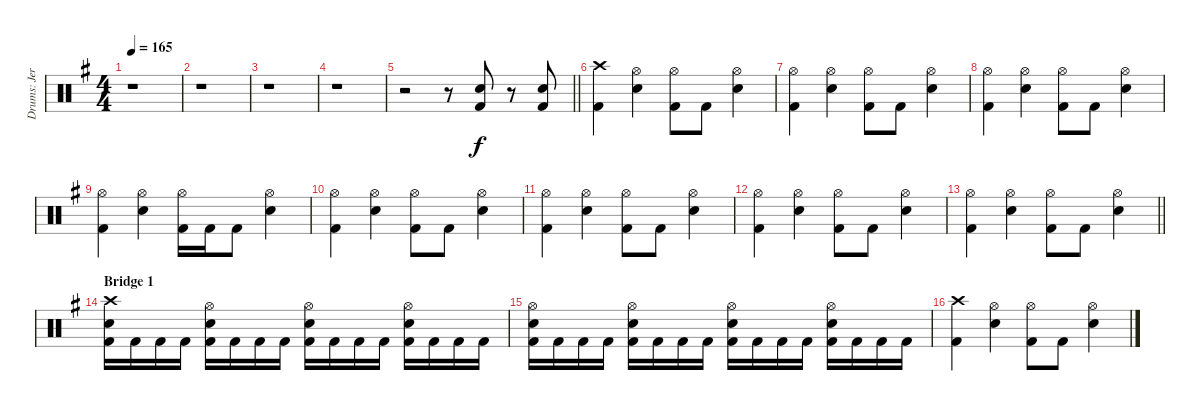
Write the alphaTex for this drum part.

\track ("Drums: Jere Luokkamäki" "Drums: Jer") {instrument percussion}
\staff {score}
\articulation defaults
\ts (4 4)
\tempo 165
\clef neutral
\ks eminor
r.1{dy f} |
r.1 |
r.1 |
r.1 |
\barLineRight lightlight
r.2 r.8 ("Electric Snare (hit)" "Kick (hit) 2").8 r.8 ("Electric Snare (hit)" "Kick (hit) 2").8 |
("Crash high (hit)" "Kick (hit) 2").4 ("Hi-Hat (open)" "Electric Snare (hit)").4 ("Hi-Hat (open)" "Kick (hit) 2").8 "Kick (hit) 2".8 ("Hi-Hat (open)" "Electric Snare (hit)").4 |
("Hi-Hat (open)" "Kick (hit) 2").4 ("Hi-Hat (open)" "Electric Snare (hit)").4 ("Hi-Hat (open)" "Kick (hit) 2").8 "Kick (hit) 2".8 ("Hi-Hat (open)" "Electric Snare (hit)").4 |
("Hi-Hat (open)" "Kick (hit) 2").4 ("Hi-Hat (open)" "Electric Snare (hit)").4 ("Hi-Hat (open)" "Kick (hit) 2").8 "Kick (hit) 2".8 ("Hi-Hat (open)" "Electric Snare (hit)").4 |
("Hi-Hat (open)" "Kick (hit) 2").4 ("Hi-Hat (open)" "Electric Snare (hit)").4 ("Hi-Hat (open)" "Kick (hit) 2").16 "Kick (hit) 2".16 "Kick (hit) 2".8 ("Hi-Hat (open)" "Electric Snare (hit)").4 |
("Hi-Hat (open)" "Kick (hit) 2").4 ("Hi-Hat (open)" "Electric Snare (hit)").4 ("Hi-Hat (open)" "Kick (hit) 2").8 "Kick (hit) 2".8 ("Hi-Hat (open)" "Electric Snare (hit)").4 |
("Hi-Hat (open)" "Kick (hit) 2").4 ("Hi-Hat (open)" "Electric Snare (hit)").4 ("Hi-Hat (open)" "Kick (hit) 2").8 "Kick (hit) 2".8 ("Hi-Hat (open)" "Electric Snare (hit)").4 |
("Hi-Hat (open)" "Kick (hit) 2").4 ("Hi-Hat (open)" "Electric Snare (hit)").4 ("Hi-Hat (open)" "Kick (hit) 2").8 "Kick (hit) 2".8 ("Hi-Hat (open)" "Electric Snare (hit)").4 |
\barLineRight lightlight
("Hi-Hat (open)" "Kick (hit) 2").4 ("Hi-Hat (open)" "Electric Snare (hit)").4 ("Hi-Hat (open)" "Kick (hit) 2").8 "Kick (hit) 2".8 ("Hi-Hat (open)" "Electric Snare (hit)").4 |
\section ("" "Bridge 1")
("Crash high (hit)" "Electric Snare (hit)" "Kick (hit) 2").16 "Kick (hit) 2".16 "Kick (hit) 2".16 "Kick (hit) 2".16 ("Hi-Hat (open)" "Electric Snare (hit)" "Kick (hit) 2").16 "Kick (hit) 2".16 "Kick (hit) 2".16 "Kick (hit) 2".16 ("Hi-Hat (open)" "Electric Snare (hit)" "Kick (hit) 2").16 "Kick (hit) 2".16 "Kick (hit) 2".16 "Kick (hit) 2".16 ("Hi-Hat (open)" "Electric Snare (hit)" "Kick (hit) 2").16 "Kick (hit) 2".16 "Kick (hit) 2".16 "Kick (hit) 2".16 |
("Hi-Hat (open)" "Electric Snare (hit)" "Kick (hit) 2").16 "Kick (hit) 2".16 "Kick (hit) 2".16 "Kick (hit) 2".16 ("Hi-Hat (open)" "Electric Snare (hit)" "Kick (hit) 2").16 "Kick (hit) 2".16 "Kick (hit) 2".16 "Kick (hit) 2".16 ("Hi-Hat (open)" "Electric Snare (hit)" "Kick (hit) 2").16 "Kick (hit) 2".16 "Kick (hit) 2".16 "Kick (hit) 2".16 ("Hi-Hat (open)" "Electric Snare (hit)" "Kick (hit) 2").16 "Kick (hit) 2".16 "Kick (hit) 2".16 "Kick (hit) 2".16 |
("Crash high (hit)" "Kick (hit) 2").4 ("Hi-Hat (open)" "Electric Snare (hit)").4 ("Hi-Hat (open)" "Kick (hit) 2").8 "Kick (hit) 2".8 ("Hi-Hat (open)" "Electric Snare (hit)").4
